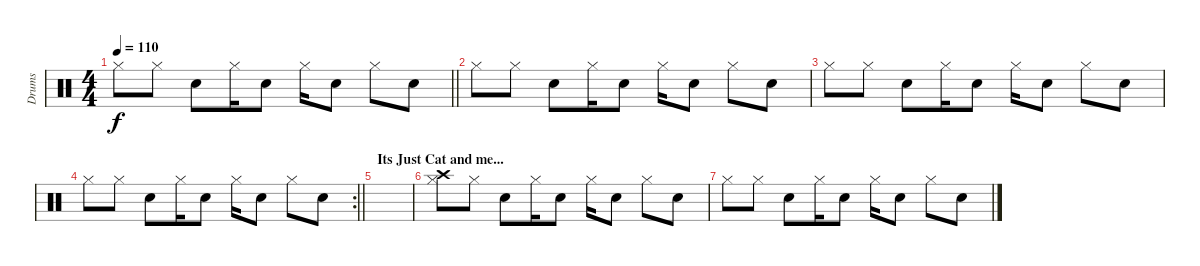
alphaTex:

\track ("Drums" "Drums") {instrument percussion}
\staff {score}
\articulation defaults
\ts (4 4)
\tempo 110
\clef neutral
\barLineRight lightlight
\ks c "Hi-Hat (closed)".8{dy f} "Hi-Hat (closed)".8 "Electric Snare (hit)".8 "Hi-Hat (closed)".16 "Electric Snare (hit)".8 "Hi-Hat (closed)".16 "Electric Snare (hit)".8 "Hi-Hat (closed)".8 "Electric Snare (hit)".8
|
"Hi-Hat (closed)".8 "Hi-Hat (closed)".8 "Electric Snare (hit)".8 "Hi-Hat (closed)".16 "Electric Snare (hit)".8 "Hi-Hat (closed)".16 "Electric Snare (hit)".8 "Hi-Hat (closed)".8 "Electric Snare (hit)".8 |
"Hi-Hat (closed)".8 "Hi-Hat (closed)".8 "Electric Snare (hit)".8 "Hi-Hat (closed)".16 "Electric Snare (hit)".8 "Hi-Hat (closed)".16 "Electric Snare (hit)".8 "Hi-Hat (closed)".8 "Electric Snare (hit)".8 |
\rc 2
\barLineRight lightlight "Hi-Hat (closed)".8 "Hi-Hat (closed)".8 "Electric Snare (hit)".8 "Hi-Hat (closed)".16 "Electric Snare (hit)".8 "Hi-Hat (closed)".16 "Electric Snare (hit)".8 "Hi-Hat (closed)".8 "Electric Snare (hit)".8
|
\section ("" "Its Just Cat and me...")
|
("Crash high (hit)" "Hi-Hat (closed)").8 "Hi-Hat (closed)".8 "Electric Snare (hit)".8 "Hi-Hat (closed)".16 "Electric Snare (hit)".8 "Hi-Hat (closed)".16 "Electric Snare (hit)".8 "Hi-Hat (closed)".8 "Electric Snare (hit)".8 |
"Hi-Hat (closed)".8 "Hi-Hat (closed)".8 "Electric Snare (hit)".8 "Hi-Hat (closed)".16 "Electric Snare (hit)".8 "Hi-Hat (closed)".16 "Electric Snare (hit)".8 "Hi-Hat (closed)".8 "Electric Snare (hit)".8
